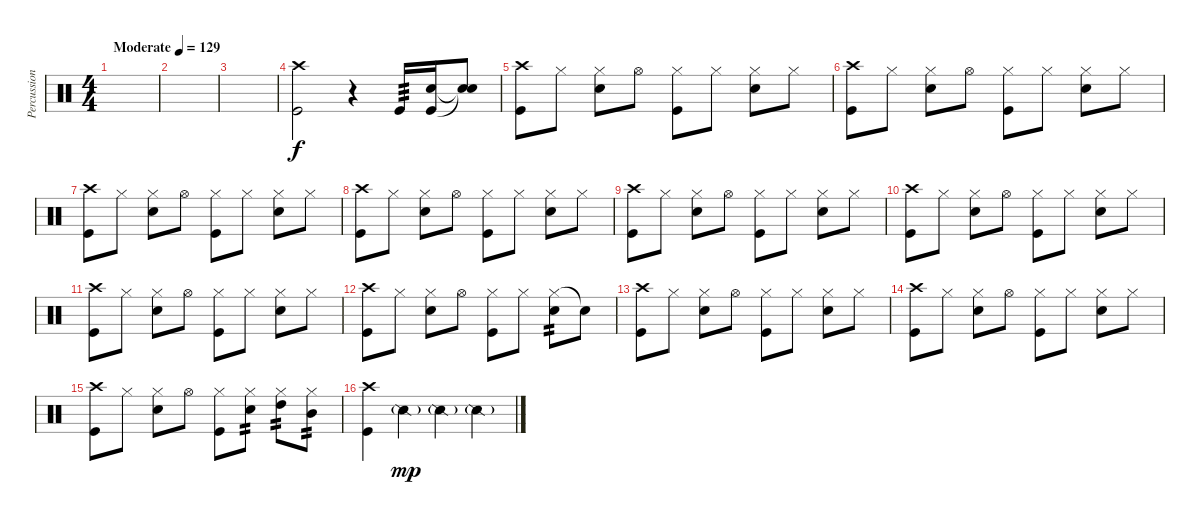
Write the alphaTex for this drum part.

\track ("Percussion" "Percussion") {instrument percussion}
\staff {score}
\articulation defaults
\ts (4 4)
\tempo (129 "Moderate")
\clef neutral
\ks c
|
|
|
("Crash high (hit)" "Kick (hit)").2 r.4 "Kick (hit)".16{tp 3} ("Snare (hit) 2" "Kick (hit)").16 ("Snare (hit)"{t} "Snare (hit)"{t}).8 |
("Crash high (hit)" "Kick (hit)").8 "Hi-Hat (closed)".8 ("Hi-Hat (closed)" "Snare (hit) 2").8 "Hi-Hat (open)".8 ("Hi-Hat (closed)" "Kick (hit)").8 "Hi-Hat (closed)".8 ("Hi-Hat (closed)" "Snare (hit) 2").8 "Hi-Hat (closed)".8 |
("Crash high (hit)" "Kick (hit)").8 "Hi-Hat (closed)".8 ("Hi-Hat (closed)" "Snare (hit) 2").8 "Hi-Hat (open)".8 ("Hi-Hat (closed)" "Kick (hit)").8 "Hi-Hat (closed)".8 ("Hi-Hat (closed)" "Snare (hit) 2").8 "Hi-Hat (closed)".8 |
("Crash high (hit)" "Kick (hit)").8 "Hi-Hat (closed)".8 ("Hi-Hat (closed)" "Snare (hit) 2").8 "Hi-Hat (open)".8 ("Hi-Hat (closed)" "Kick (hit)").8 "Hi-Hat (closed)".8 ("Hi-Hat (closed)" "Snare (hit) 2").8 "Hi-Hat (closed)".8 |
("Crash high (hit)" "Kick (hit)").8 "Hi-Hat (closed)".8 ("Hi-Hat (closed)" "Snare (hit) 2").8 "Hi-Hat (open)".8 ("Hi-Hat (closed)" "Kick (hit)").8 "Hi-Hat (closed)".8 ("Hi-Hat (closed)" "Snare (hit) 2").8 "Hi-Hat (closed)".8 |
("Crash high (hit)" "Kick (hit)").8 "Hi-Hat (closed)".8 ("Hi-Hat (closed)" "Snare (hit) 2").8 "Hi-Hat (open)".8 ("Hi-Hat (closed)" "Kick (hit)").8 "Hi-Hat (closed)".8 ("Hi-Hat (closed)" "Snare (hit) 2").8 "Hi-Hat (closed)".8 |
("Crash high (hit)" "Kick (hit)").8 "Hi-Hat (closed)".8 ("Hi-Hat (closed)" "Snare (hit) 2").8 "Hi-Hat (open)".8 ("Hi-Hat (closed)" "Kick (hit)").8 "Hi-Hat (closed)".8 ("Hi-Hat (closed)" "Snare (hit) 2").8 "Hi-Hat (closed)".8 |
("Crash high (hit)" "Kick (hit)").8 "Hi-Hat (closed)".8 ("Hi-Hat (closed)" "Snare (hit) 2").8 "Hi-Hat (open)".8 ("Hi-Hat (closed)" "Kick (hit)").8 "Hi-Hat (closed)".8 ("Hi-Hat (closed)" "Snare (hit) 2").8 "Hi-Hat (closed)".8 |
("Crash high (hit)" "Kick (hit)").8 "Hi-Hat (closed)".8 ("Hi-Hat (closed)" "Snare (hit) 2").8 "Hi-Hat (open)".8 ("Hi-Hat (closed)" "Kick (hit)").8 "Hi-Hat (closed)".8 ("Hi-Hat (closed)" "Snare (hit) 2").8{tp 2} "Snare (hit)"{t}.8 |
("Crash high (hit)" "Kick (hit)").8 "Hi-Hat (closed)".8 ("Hi-Hat (closed)" "Snare (hit) 2").8 "Hi-Hat (open)".8 ("Hi-Hat (closed)" "Kick (hit)").8 "Hi-Hat (closed)".8 ("Hi-Hat (closed)" "Snare (hit) 2").8 "Hi-Hat (closed)".8 |
("Crash high (hit)" "Kick (hit)").8 "Hi-Hat (closed)".8 ("Hi-Hat (closed)" "Snare (hit) 2").8 "Hi-Hat (open)".8 ("Hi-Hat (closed)" "Kick (hit)").8 "Hi-Hat (closed)".8 ("Hi-Hat (closed)" "Snare (hit) 2").8 "Hi-Hat (closed)".8 |
("Crash high (hit)" "Kick (hit)").8 "Hi-Hat (closed)".8 ("Hi-Hat (closed)" "Snare (hit) 2").8 "Hi-Hat (open)".8 ("Hi-Hat (closed)" "Kick (hit)").8 ("Hi-Hat (closed)" "Snare (hit) 2").8{tp 2} ("Hi-Hat (closed)" "High Tom (hit)").8{tp 2} ("Hi-Hat (closed)" "Mid Tom (hit)").8{tp 2} |
("Crash high (hit)" "Kick (hit)").4 "Snare (side stick) 2"{g}.4{dy mp} "Snare (side stick) 2"{g}.4 "Snare (side stick) 2"{g}.4
